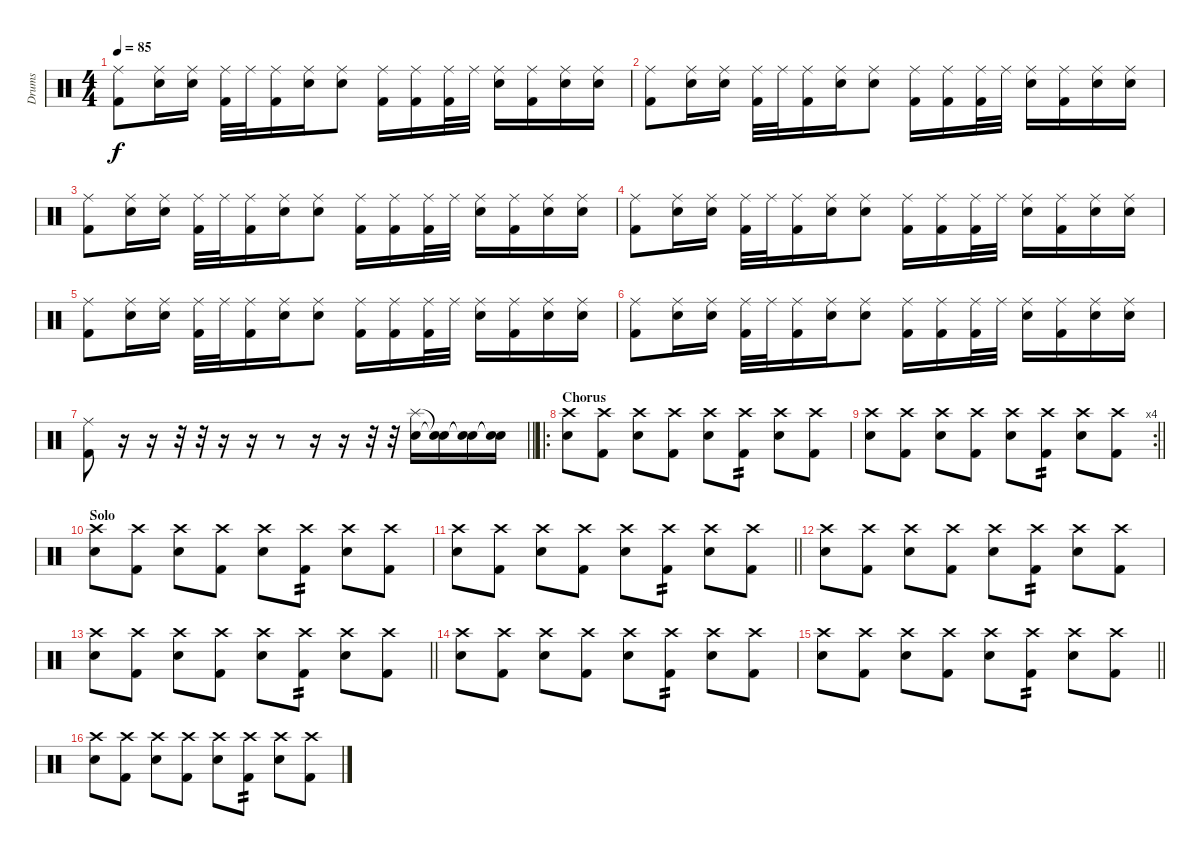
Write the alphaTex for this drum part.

\track ("Drums" "Drums") {instrument percussion}
\staff {score}
\articulation defaults
\ts (4 4)
\tempo 85
\clef neutral
\ks c
("Ride (middle)" "Kick (hit) 2").8{dy f} ("Ride (middle)" "Electric Snare (hit)").16 ("Ride (middle)" "Electric Snare (hit)").16 ("Ride (middle)" "Kick (hit) 2").32 "Ride (middle)".32 ("Ride (middle)" "Kick (hit) 2").16 ("Ride (middle)" "Electric Snare (hit)").16 ("Ride (middle)" "Electric Snare (hit)").8 ("Ride (middle)" "Kick (hit) 2").16 ("Ride (middle)" "Kick (hit) 2").16 ("Ride (middle)" "Kick (hit) 2").32 "Ride (middle)".32 ("Ride (middle)" "Electric Snare (hit)").16 ("Ride (middle)" "Kick (hit) 2").16 ("Ride (middle)" "Electric Snare (hit)").16 ("Ride (middle)" "Electric Snare (hit)").16 |
("Ride (middle)" "Kick (hit) 2").8 ("Ride (middle)" "Electric Snare (hit)").16 ("Ride (middle)" "Electric Snare (hit)").16 ("Ride (middle)" "Kick (hit) 2").32 "Ride (middle)".32 ("Ride (middle)" "Kick (hit) 2").16 ("Ride (middle)" "Electric Snare (hit)").16 ("Ride (middle)" "Electric Snare (hit)").8 ("Ride (middle)" "Kick (hit) 2").16 ("Ride (middle)" "Kick (hit) 2").16 ("Ride (middle)" "Kick (hit) 2").32 "Ride (middle)".32 ("Ride (middle)" "Electric Snare (hit)").16 ("Ride (middle)" "Kick (hit) 2").16 ("Ride (middle)" "Electric Snare (hit)").16 ("Ride (middle)" "Electric Snare (hit)").16 |
("Ride (middle)" "Kick (hit) 2").8 ("Ride (middle)" "Electric Snare (hit)").16 ("Ride (middle)" "Electric Snare (hit)").16 ("Ride (middle)" "Kick (hit) 2").32 "Ride (middle)".32 ("Ride (middle)" "Kick (hit) 2").16 ("Ride (middle)" "Electric Snare (hit)").16 ("Ride (middle)" "Electric Snare (hit)").8 ("Ride (middle)" "Kick (hit) 2").16 ("Ride (middle)" "Kick (hit) 2").16 ("Ride (middle)" "Kick (hit) 2").32 "Ride (middle)".32 ("Ride (middle)" "Electric Snare (hit)").16 ("Ride (middle)" "Kick (hit) 2").16 ("Ride (middle)" "Electric Snare (hit)").16 ("Ride (middle)" "Electric Snare (hit)").16 |
("Ride (middle)" "Kick (hit) 2").8 ("Ride (middle)" "Electric Snare (hit)").16 ("Ride (middle)" "Electric Snare (hit)").16 ("Ride (middle)" "Kick (hit) 2").32 "Ride (middle)".32 ("Ride (middle)" "Kick (hit) 2").16 ("Ride (middle)" "Electric Snare (hit)").16 ("Ride (middle)" "Electric Snare (hit)").8 ("Ride (middle)" "Kick (hit) 2").16 ("Ride (middle)" "Kick (hit) 2").16 ("Ride (middle)" "Kick (hit) 2").32 "Ride (middle)".32 ("Ride (middle)" "Electric Snare (hit)").16 ("Ride (middle)" "Kick (hit) 2").16 ("Ride (middle)" "Electric Snare (hit)").16 ("Ride (middle)" "Electric Snare (hit)").16 |
("Ride (middle)" "Kick (hit) 2").8 ("Ride (middle)" "Electric Snare (hit)").16 ("Ride (middle)" "Electric Snare (hit)").16 ("Ride (middle)" "Kick (hit) 2").32 "Ride (middle)".32 ("Ride (middle)" "Kick (hit) 2").16 ("Ride (middle)" "Electric Snare (hit)").16 ("Ride (middle)" "Electric Snare (hit)").8 ("Ride (middle)" "Kick (hit) 2").16 ("Ride (middle)" "Kick (hit) 2").16 ("Ride (middle)" "Kick (hit) 2").32 "Ride (middle)".32 ("Ride (middle)" "Electric Snare (hit)").16 ("Ride (middle)" "Kick (hit) 2").16 ("Ride (middle)" "Electric Snare (hit)").16 ("Ride (middle)" "Electric Snare (hit)").16 |
("Ride (middle)" "Kick (hit) 2").8 ("Ride (middle)" "Electric Snare (hit)").16 ("Ride (middle)" "Electric Snare (hit)").16 ("Ride (middle)" "Kick (hit) 2").32 "Ride (middle)".32 ("Ride (middle)" "Kick (hit) 2").16 ("Ride (middle)" "Electric Snare (hit)").16 ("Ride (middle)" "Electric Snare (hit)").8 ("Ride (middle)" "Kick (hit) 2").16 ("Ride (middle)" "Kick (hit) 2").16 ("Ride (middle)" "Kick (hit) 2").32 "Ride (middle)".32 ("Ride (middle)" "Electric Snare (hit)").16 ("Ride (middle)" "Kick (hit) 2").16 ("Ride (middle)" "Electric Snare (hit)").16 ("Ride (middle)" "Electric Snare (hit)").16 |
\barLineRight lightlight
("Ride (middle)" "Kick (hit) 2").8 r.16 r.16 r.32 r.32 r.16 r.16 r.8 r.16 r.16 r.32 r.32 ("Splash (hit)" "Electric Snare (hit)").16 ("Snare (hit)"{t} "Snare (hit)"{t}).16 ("Snare (hit)"{t} "Electric Snare (hit)"{t}).16 ("Snare (hit)"{t} "Snare (hit)"{t}).16 |
\ro
\section ("" "Chorus")
("Crash high (hit)" "Electric Snare (hit)").8 ("Crash high (hit)" "Kick (hit) 2").8 ("Crash high (hit)" "Electric Snare (hit)").8 ("Crash high (hit)" "Kick (hit) 2").8 ("Crash high (hit)" "Electric Snare (hit)").8 ("Crash high (hit)" "Kick (hit) 2").8{tp 2} ("Crash high (hit)" "Electric Snare (hit)").8 ("Crash high (hit)" "Kick (hit) 2").8 |
\rc 4
\barLineRight lightlight
("Crash high (hit)" "Electric Snare (hit)").8 ("Crash high (hit)" "Kick (hit) 2").8 ("Crash high (hit)" "Electric Snare (hit)").8 ("Crash high (hit)" "Kick (hit) 2").8 ("Crash high (hit)" "Electric Snare (hit)").8 ("Crash high (hit)" "Kick (hit) 2").8{tp 2} ("Crash high (hit)" "Electric Snare (hit)").8 ("Crash high (hit)" "Kick (hit) 2").8 |
\section ("" "Solo")
("Crash high (hit)" "Electric Snare (hit)").8 ("Crash high (hit)" "Kick (hit) 2").8 ("Crash high (hit)" "Electric Snare (hit)").8 ("Crash high (hit)" "Kick (hit) 2").8 ("Crash high (hit)" "Electric Snare (hit)").8 ("Crash high (hit)" "Kick (hit) 2").8{tp 2} ("Crash high (hit)" "Electric Snare (hit)").8 ("Crash high (hit)" "Kick (hit) 2").8 |
\barLineRight lightlight
("Crash high (hit)" "Electric Snare (hit)").8 ("Crash high (hit)" "Kick (hit) 2").8 ("Crash high (hit)" "Electric Snare (hit)").8 ("Crash high (hit)" "Kick (hit) 2").8 ("Crash high (hit)" "Electric Snare (hit)").8 ("Crash high (hit)" "Kick (hit) 2").8{tp 2} ("Crash high (hit)" "Electric Snare (hit)").8 ("Crash high (hit)" "Kick (hit) 2").8 |
("Crash high (hit)" "Electric Snare (hit)").8 ("Crash high (hit)" "Kick (hit) 2").8 ("Crash high (hit)" "Electric Snare (hit)").8 ("Crash high (hit)" "Kick (hit) 2").8 ("Crash high (hit)" "Electric Snare (hit)").8 ("Crash high (hit)" "Kick (hit) 2").8{tp 2} ("Crash high (hit)" "Electric Snare (hit)").8 ("Crash high (hit)" "Kick (hit) 2").8 |
\barLineRight lightlight
("Crash high (hit)" "Electric Snare (hit)").8 ("Crash high (hit)" "Kick (hit) 2").8 ("Crash high (hit)" "Electric Snare (hit)").8 ("Crash high (hit)" "Kick (hit) 2").8 ("Crash high (hit)" "Electric Snare (hit)").8 ("Crash high (hit)" "Kick (hit) 2").8{tp 2} ("Crash high (hit)" "Electric Snare (hit)").8 ("Crash high (hit)" "Kick (hit) 2").8 |
("Crash high (hit)" "Electric Snare (hit)").8 ("Crash high (hit)" "Kick (hit) 2").8 ("Crash high (hit)" "Electric Snare (hit)").8 ("Crash high (hit)" "Kick (hit) 2").8 ("Crash high (hit)" "Electric Snare (hit)").8 ("Crash high (hit)" "Kick (hit) 2").8{tp 2} ("Crash high (hit)" "Electric Snare (hit)").8 ("Crash high (hit)" "Kick (hit) 2").8 |
\barLineRight lightlight
("Crash high (hit)" "Electric Snare (hit)").8 ("Crash high (hit)" "Kick (hit) 2").8 ("Crash high (hit)" "Electric Snare (hit)").8 ("Crash high (hit)" "Kick (hit) 2").8 ("Crash high (hit)" "Electric Snare (hit)").8 ("Crash high (hit)" "Kick (hit) 2").8{tp 2} ("Crash high (hit)" "Electric Snare (hit)").8 ("Crash high (hit)" "Kick (hit) 2").8 |
("Crash high (hit)" "Electric Snare (hit)").8 ("Crash high (hit)" "Kick (hit) 2").8 ("Crash high (hit)" "Electric Snare (hit)").8 ("Crash high (hit)" "Kick (hit) 2").8 ("Crash high (hit)" "Electric Snare (hit)").8 ("Crash high (hit)" "Kick (hit) 2").8{tp 2} ("Crash high (hit)" "Electric Snare (hit)").8 ("Crash high (hit)" "Kick (hit) 2").8
